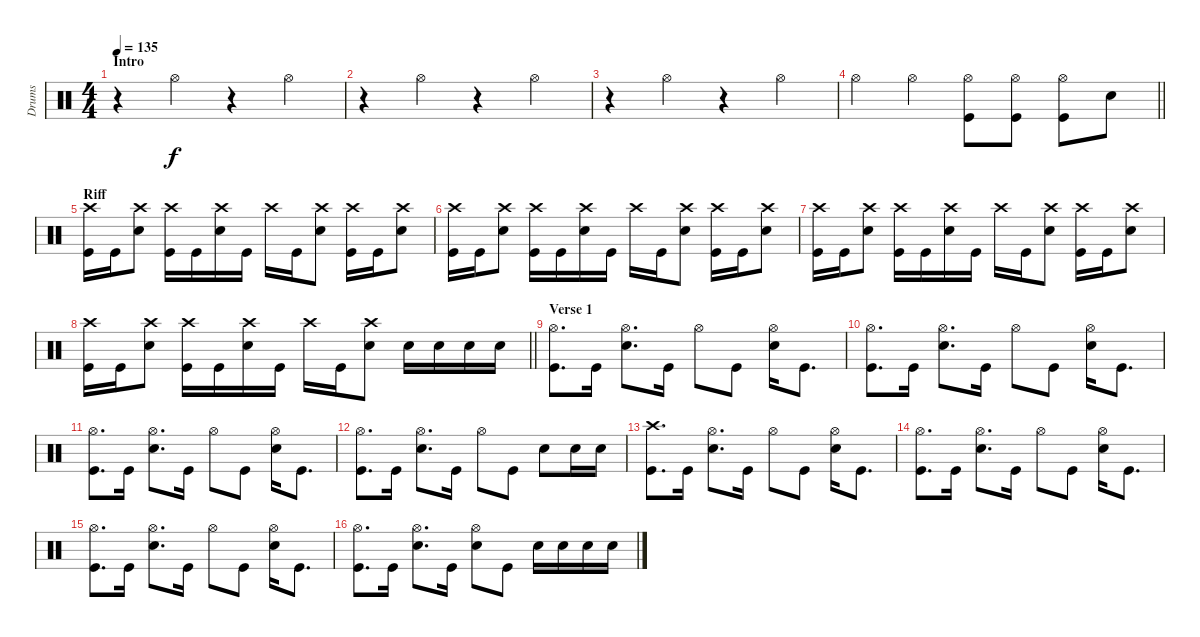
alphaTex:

\track ("Drums" "Drums") {instrument percussion}
\staff {score}
\articulation defaults
\ts (4 4)
\section ("" "Intro")
\tempo 135
\clef neutral
\ks c
r.4{dy f} "Hi-Hat (open)".4 r.4 "Hi-Hat (open)".4 |
r.4 "Hi-Hat (open)".4 r.4 "Hi-Hat (open)".4 |
r.4 "Hi-Hat (open)".4 r.4 "Hi-Hat (open)".4 |
\barLineRight lightlight "Hi-Hat (open)".4 "Hi-Hat (open)".4
("Hi-Hat (open)" "Kick (hit)").8 ("Hi-Hat (open)" "Kick (hit)").8 ("Hi-Hat (open)" "Kick (hit)").8 "Snare (hit) 2".8 |
\section ("" "Riff")
("Kick (hit)" "Crash high (hit)").16 "Kick (hit)".16 ("Snare (hit) 2" "Crash high (hit)").8 ("Kick (hit)" "Crash high (hit)").16 "Kick (hit)".16 ("Snare (hit) 2" "Crash high (hit)").16 "Kick (hit)".16 "Crash high (hit)".16 "Kick (hit)".16 ("Snare (hit) 2" "Crash high (hit)").8 ("Kick (hit)" "Crash high (hit)").16 "Kick (hit)".16 ("Snare (hit) 2" "Crash high (hit)").8 |
("Kick (hit)" "Crash high (hit)").16 "Kick (hit)".16 ("Snare (hit) 2" "Crash high (hit)").8 ("Kick (hit)" "Crash high (hit)").16 "Kick (hit)".16 ("Snare (hit) 2" "Crash high (hit)").16 "Kick (hit)".16 "Crash high (hit)".16 "Kick (hit)".16 ("Snare (hit) 2" "Crash high (hit)").8 ("Kick (hit)" "Crash high (hit)").16 "Kick (hit)".16 ("Snare (hit) 2" "Crash high (hit)").8 |
("Kick (hit)" "Crash high (hit)").16 "Kick (hit)".16 ("Snare (hit) 2" "Crash high (hit)").8 ("Kick (hit)" "Crash high (hit)").16 "Kick (hit)".16 ("Snare (hit) 2" "Crash high (hit)").16 "Kick (hit)".16 "Crash high (hit)".16 "Kick (hit)".16 ("Snare (hit) 2" "Crash high (hit)").8 ("Kick (hit)" "Crash high (hit)").16 "Kick (hit)".16 ("Snare (hit) 2" "Crash high (hit)").8 |
\barLineRight lightlight
("Kick (hit)" "Crash high (hit)").16 "Kick (hit)".16 ("Snare (hit) 2" "Crash high (hit)").8 ("Kick (hit)" "Crash high (hit)").16 "Kick (hit)".16 ("Snare (hit) 2" "Crash high (hit)").16 "Kick (hit)".16 "Crash high (hit)".16 "Kick (hit)".16 ("Snare (hit) 2" "Crash high (hit)").8 "Snare (hit) 2".16 "Snare (hit) 2".16 "Snare (hit) 2".16 "Snare (hit) 2".16 |
\section ("" "Verse 1")
("Kick (hit)" "Hi-Hat (open)").8{d} "Kick (hit)".16 ("Snare (hit) 2" "Hi-Hat (open)").8{d} "Kick (hit)".16 "Hi-Hat (open)".8 "Kick (hit)".8 ("Snare (hit) 2" "Hi-Hat (open)").16 "Kick (hit)".8{d} |
("Kick (hit)" "Hi-Hat (open)").8{d} "Kick (hit)".16 ("Snare (hit) 2" "Hi-Hat (open)").8{d} "Kick (hit)".16 "Hi-Hat (open)".8 "Kick (hit)".8 ("Snare (hit) 2" "Hi-Hat (open)").16 "Kick (hit)".8{d} |
("Kick (hit)" "Hi-Hat (open)").8{d} "Kick (hit)".16 ("Snare (hit) 2" "Hi-Hat (open)").8{d} "Kick (hit)".16 "Hi-Hat (open)".8 "Kick (hit)".8 ("Snare (hit) 2" "Hi-Hat (open)").16 "Kick (hit)".8{d} |
("Kick (hit)" "Hi-Hat (open)").8{d} "Kick (hit)".16 ("Snare (hit) 2" "Hi-Hat (open)").8{d} "Kick (hit)".16 "Hi-Hat (open)".8 "Kick (hit)".8 "Snare (hit) 2".8 "Snare (hit) 2".16 "Snare (hit) 2".16 |
("Kick (hit)" "Crash high (hit)").8{d} "Kick (hit)".16 ("Snare (hit) 2" "Hi-Hat (open)").8{d} "Kick (hit)".16 "Hi-Hat (open)".8 "Kick (hit)".8 ("Snare (hit) 2" "Hi-Hat (open)").16 "Kick (hit)".8{d} |
("Kick (hit)" "Hi-Hat (open)").8{d} "Kick (hit)".16 ("Snare (hit) 2" "Hi-Hat (open)").8{d} "Kick (hit)".16 "Hi-Hat (open)".8 "Kick (hit)".8 ("Snare (hit) 2" "Hi-Hat (open)").16 "Kick (hit)".8{d} |
("Kick (hit)" "Hi-Hat (open)").8{d} "Kick (hit)".16 ("Snare (hit) 2" "Hi-Hat (open)").8{d} "Kick (hit)".16 "Hi-Hat (open)".8 "Kick (hit)".8 ("Snare (hit) 2" "Hi-Hat (open)").16 "Kick (hit)".8{d} |
("Kick (hit)" "Hi-Hat (open)").8{d} "Kick (hit)".16 ("Snare (hit) 2" "Hi-Hat (open)").8{d} "Kick (hit)".16 ("Hi-Hat (open)" "Snare (hit) 2").8 "Kick (hit)".8 "Snare (hit) 2".16 "Snare (hit) 2".16 "Snare (hit) 2".16 "Snare (hit) 2".16
